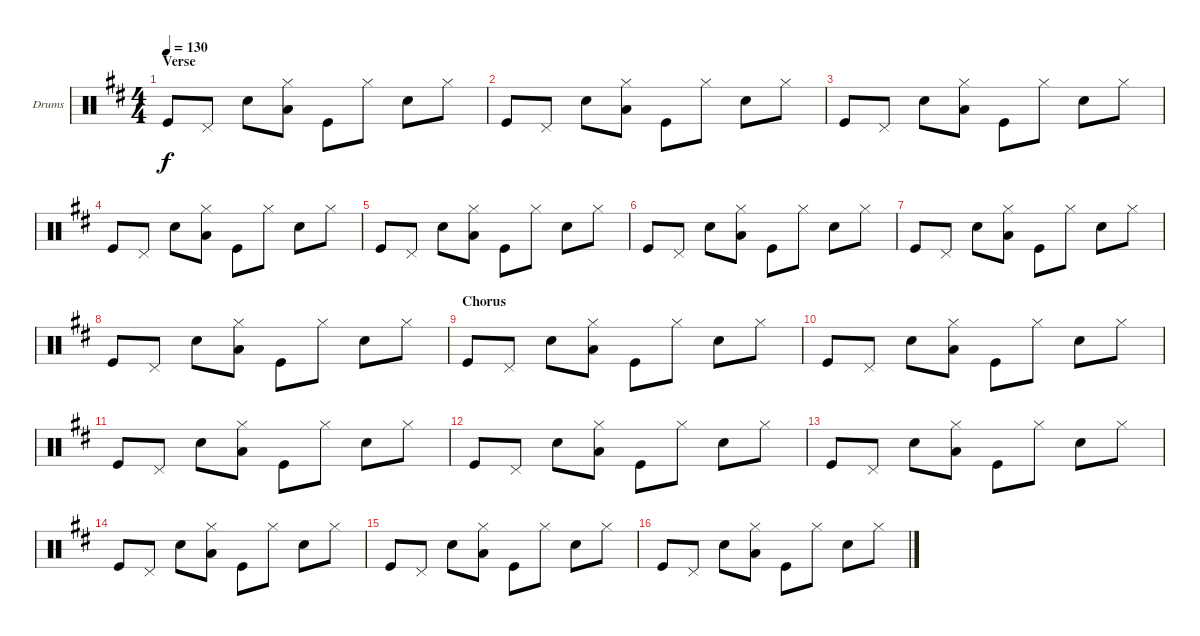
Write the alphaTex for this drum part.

\defaultSystemsLayout 4
\bracketExtendMode groupsimilarinstruments
\firstSystemTrackNameOrientation horizontal
\otherSystemsTrackNameOrientation horizontal
\track ("Drumkit" "Drums") {instrument percussion}
\staff {score}
\articulation defaults
\ts (4 4)
\section ("" "Verse")
\tempo 130
\clef neutral
\scale
0.333333
\ks d "Kick (hit)".8{dy f} "Pedal Hi-Hat (hit)".8 "Snare (hit) 2".8
("Hi-Hat (closed)" "Low Tom (hit)").8 "Kick (hit)".8 "Hi-Hat (closed)".8 "Snare (hit) 2".8 "Hi-Hat (closed)".8 |
\scale
0.333333 "Kick (hit)".8 "Pedal Hi-Hat (hit)".8 "Snare (hit) 2".8 ("Hi-Hat (closed)" "Low Tom (hit)").8 "Kick (hit)".8 "Hi-Hat (closed)".8 "Snare (hit) 2".8 "Hi-Hat (closed)".8 |
\scale
0.333333 "Kick (hit)".8 "Pedal Hi-Hat (hit)".8 "Snare (hit) 2".8 ("Hi-Hat (closed)" "Low Tom (hit)").8 "Kick (hit)".8 "Hi-Hat (closed)".8 "Snare (hit) 2".8 "Hi-Hat (closed)".8 |
\scale
0.333333 "Kick (hit)".8 "Pedal Hi-Hat (hit)".8 "Snare (hit) 2".8 ("Hi-Hat (closed)" "Low Tom (hit)").8 "Kick (hit)".8 "Hi-Hat (closed)".8 "Snare (hit) 2".8 "Hi-Hat (closed)".8 |
\scale
0.333333 "Kick (hit)".8 "Pedal Hi-Hat (hit)".8 "Snare (hit) 2".8 ("Hi-Hat (closed)" "Low Tom (hit)").8 "Kick (hit)".8 "Hi-Hat (closed)".8 "Snare (hit) 2".8 "Hi-Hat (closed)".8 |
\scale
0.333333 "Kick (hit)".8 "Pedal Hi-Hat (hit)".8 "Snare (hit) 2".8 ("Hi-Hat (closed)" "Low Tom (hit)").8 "Kick (hit)".8 "Hi-Hat (closed)".8 "Snare (hit) 2".8 "Hi-Hat (closed)".8 |
\scale
0.333333 "Kick (hit)".8 "Pedal Hi-Hat (hit)".8 "Snare (hit) 2".8 ("Hi-Hat (closed)" "Low Tom (hit)").8 "Kick (hit)".8 "Hi-Hat (closed)".8 "Snare (hit) 2".8 "Hi-Hat (closed)".8 |
\scale
0.333333 "Kick (hit)".8 "Pedal Hi-Hat (hit)".8 "Snare (hit) 2".8 ("Hi-Hat (closed)" "Low Tom (hit)").8 "Kick (hit)".8 "Hi-Hat (closed)".8 "Snare (hit) 2".8 "Hi-Hat (closed)".8 |
\section ("" "Chorus")
\scale
0.333333 "Kick (hit)".8 "Pedal Hi-Hat (hit)".8 "Snare (hit) 2".8 ("Hi-Hat (closed)" "Low Tom (hit)").8 "Kick (hit)".8 "Hi-Hat (closed)".8 "Snare (hit) 2".8 "Hi-Hat (closed)".8 |
\scale
0.333333 "Kick (hit)".8 "Pedal Hi-Hat (hit)".8 "Snare (hit) 2".8 ("Hi-Hat (closed)" "Low Tom (hit)").8 "Kick (hit)".8 "Hi-Hat (closed)".8 "Snare (hit) 2".8 "Hi-Hat (closed)".8 |
\scale
0.333333 "Kick (hit)".8 "Pedal Hi-Hat (hit)".8 "Snare (hit) 2".8 ("Hi-Hat (closed)" "Low Tom (hit)").8 "Kick (hit)".8 "Hi-Hat (closed)".8 "Snare (hit) 2".8 "Hi-Hat (closed)".8 |
\scale
0.333333 "Kick (hit)".8 "Pedal Hi-Hat (hit)".8 "Snare (hit) 2".8 ("Hi-Hat (closed)" "Low Tom (hit)").8 "Kick (hit)".8 "Hi-Hat (closed)".8 "Snare (hit) 2".8 "Hi-Hat (closed)".8 |
\scale
0.333333 "Kick (hit)".8 "Pedal Hi-Hat (hit)".8 "Snare (hit) 2".8 ("Hi-Hat (closed)" "Low Tom (hit)").8 "Kick (hit)".8 "Hi-Hat (closed)".8 "Snare (hit) 2".8 "Hi-Hat (closed)".8 |
\scale
0.333333 "Kick (hit)".8 "Pedal Hi-Hat (hit)".8 "Snare (hit) 2".8 ("Hi-Hat (closed)" "Low Tom (hit)").8 "Kick (hit)".8 "Hi-Hat (closed)".8 "Snare (hit) 2".8 "Hi-Hat (closed)".8 |
\scale
0.333333 "Kick (hit)".8 "Pedal Hi-Hat (hit)".8 "Snare (hit) 2".8 ("Hi-Hat (closed)" "Low Tom (hit)").8 "Kick (hit)".8 "Hi-Hat (closed)".8 "Snare (hit) 2".8 "Hi-Hat (closed)".8 |
\scale
0.333333 "Kick (hit)".8 "Pedal Hi-Hat (hit)".8 "Snare (hit) 2".8 ("Hi-Hat (closed)" "Low Tom (hit)").8 "Kick (hit)".8 "Hi-Hat (closed)".8 "Snare (hit) 2".8 "Hi-Hat (closed)".8
